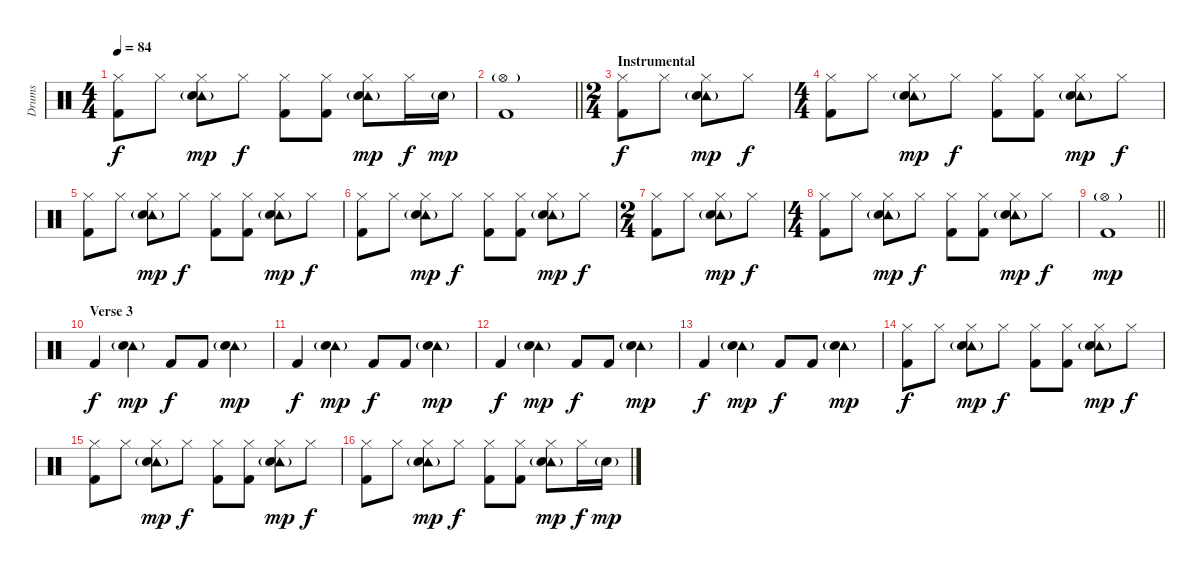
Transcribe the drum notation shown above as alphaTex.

\track ("Drums" "Drums") {instrument percussion}
\staff {score}
\articulation defaults
\ts (4 4)
\tempo 84
\clef neutral
\ks c
("Hi-Hat (closed)" "Kick (hit) 2").8{dy f} "Hi-Hat (closed)".8 ("Hi-Hat (closed)" "Tambourine (hit)"{g} "Snare (hit) 2").8{dy mp} "Hi-Hat (closed)".8{dy f} ("Hi-Hat (closed)" "Kick (hit) 2").8 ("Hi-Hat (closed)" "Kick (hit) 2").8 ("Hi-Hat (closed)" "Tambourine (hit)"{g} "Snare (hit) 2").8{dy mp} "Hi-Hat (closed)".16{dy f} "Snare (hit) 2"{g}.16{dy mp} |
\barLineRight lightlight
("Hi-Hat (open)"{g} "Kick (hit) 2").1 |
\ts (2 4)
\section ("" "Instrumental")
("Hi-Hat (closed)" "Kick (hit) 2").8{dy f} "Hi-Hat (closed)".8 ("Hi-Hat (closed)" "Tambourine (hit)"{g} "Snare (hit) 2").8{dy mp} "Hi-Hat (closed)".8{dy f} |
\ts (4 4)
("Hi-Hat (closed)" "Kick (hit) 2").8 "Hi-Hat (closed)".8 ("Hi-Hat (closed)" "Tambourine (hit)"{g} "Snare (hit) 2").8{dy mp} "Hi-Hat (closed)".8{dy f} ("Hi-Hat (closed)" "Kick (hit) 2").8 ("Hi-Hat (closed)" "Kick (hit) 2").8 ("Hi-Hat (closed)" "Tambourine (hit)"{g} "Snare (hit) 2").8{dy mp} "Hi-Hat (closed)".8{dy f} |
("Hi-Hat (closed)" "Kick (hit) 2").8 "Hi-Hat (closed)".8 ("Hi-Hat (closed)" "Tambourine (hit)"{g} "Snare (hit) 2").8{dy mp} "Hi-Hat (closed)".8{dy f} ("Hi-Hat (closed)" "Kick (hit) 2").8 ("Hi-Hat (closed)" "Kick (hit) 2").8 ("Hi-Hat (closed)" "Tambourine (hit)"{g} "Snare (hit) 2").8{dy mp} "Hi-Hat (closed)".8{dy f} |
("Hi-Hat (closed)" "Kick (hit) 2").8 "Hi-Hat (closed)".8 ("Hi-Hat (closed)" "Tambourine (hit)"{g} "Snare (hit) 2").8{dy mp} "Hi-Hat (closed)".8{dy f} ("Hi-Hat (closed)" "Kick (hit) 2").8 ("Hi-Hat (closed)" "Kick (hit) 2").8 ("Hi-Hat (closed)" "Tambourine (hit)"{g} "Snare (hit) 2").8{dy mp} "Hi-Hat (closed)".8{dy f} |
\ts (2 4)
("Hi-Hat (closed)" "Kick (hit) 2").8 "Hi-Hat (closed)".8 ("Hi-Hat (closed)" "Tambourine (hit)"{g} "Snare (hit) 2").8{dy mp} "Hi-Hat (closed)".8{dy f} |
\ts (4 4)
("Hi-Hat (closed)" "Kick (hit) 2").8 "Hi-Hat (closed)".8 ("Hi-Hat (closed)" "Tambourine (hit)"{g} "Snare (hit) 2").8{dy mp} "Hi-Hat (closed)".8{dy f} ("Hi-Hat (closed)" "Kick (hit) 2").8 ("Hi-Hat (closed)" "Kick (hit) 2").8 ("Hi-Hat (closed)" "Tambourine (hit)"{g} "Snare (hit) 2").8{dy mp} "Hi-Hat (closed)".8{dy f} |
\barLineRight lightlight
("Hi-Hat (open)"{g} "Kick (hit) 2").1{dy mp} |
\section ("" "Verse 3")
"Kick (hit) 2".4{dy f} ("Tambourine (hit)"{g} "Snare (hit) 2").4{dy mp} "Kick (hit) 2".8{dy f} "Kick (hit) 2".8 ("Tambourine (hit)"{g} "Snare (hit) 2").4{dy mp} |
"Kick (hit) 2".4{dy f} ("Tambourine (hit)"{g} "Snare (hit) 2").4{dy mp} "Kick (hit) 2".8{dy f} "Kick (hit) 2".8 ("Tambourine (hit)"{g} "Snare (hit) 2").4{dy mp} |
"Kick (hit) 2".4{dy f} ("Tambourine (hit)"{g} "Snare (hit) 2").4{dy mp} "Kick (hit) 2".8{dy f} "Kick (hit) 2".8 ("Tambourine (hit)"{g} "Snare (hit) 2").4{dy mp} |
"Kick (hit) 2".4{dy f} ("Tambourine (hit)"{g} "Snare (hit) 2").4{dy mp} "Kick (hit) 2".8{dy f} "Kick (hit) 2".8 ("Tambourine (hit)"{g} "Snare (hit) 2").4{dy mp} |
("Hi-Hat (closed)" "Kick (hit) 2").8{dy f} "Hi-Hat (closed)".8 ("Hi-Hat (closed)" "Tambourine (hit)"{g} "Snare (hit) 2").8{dy mp} "Hi-Hat (closed)".8{dy f} ("Hi-Hat (closed)" "Kick (hit) 2").8 ("Hi-Hat (closed)" "Kick (hit) 2").8 ("Hi-Hat (closed)" "Tambourine (hit)"{g} "Snare (hit) 2").8{dy mp} "Hi-Hat (closed)".8{dy f} |
("Hi-Hat (closed)" "Kick (hit) 2").8 "Hi-Hat (closed)".8 ("Hi-Hat (closed)" "Tambourine (hit)"{g} "Snare (hit) 2").8{dy mp} "Hi-Hat (closed)".8{dy f} ("Hi-Hat (closed)" "Kick (hit) 2").8 ("Hi-Hat (closed)" "Kick (hit) 2").8 ("Hi-Hat (closed)" "Tambourine (hit)"{g} "Snare (hit) 2").8{dy mp} "Hi-Hat (closed)".8{dy f} |
("Hi-Hat (closed)" "Kick (hit) 2").8 "Hi-Hat (closed)".8 ("Hi-Hat (closed)" "Tambourine (hit)"{g} "Snare (hit) 2").8{dy mp} "Hi-Hat (closed)".8{dy f} ("Hi-Hat (closed)" "Kick (hit) 2").8 ("Hi-Hat (closed)" "Kick (hit) 2").8 ("Hi-Hat (closed)" "Tambourine (hit)"{g} "Snare (hit) 2").8{dy mp} "Hi-Hat (closed)".16{dy f} "Snare (hit) 2"{g}.16{dy mp}
